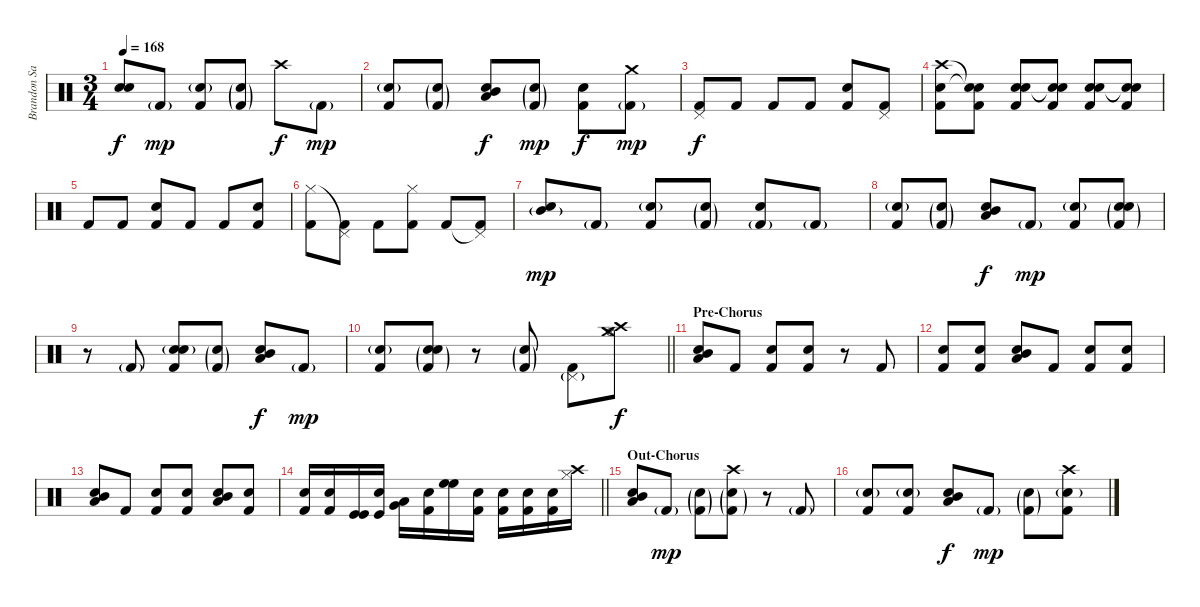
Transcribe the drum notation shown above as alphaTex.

\track ("Brandon Saller" "Brandon Sa") {instrument percussion}
\staff {score}
\articulation defaults
\ts (3 4)
\tempo 168
\clef neutral
\ks c
("Snare (hit) 2" "Electric Snare (hit)").8{dy f} "Kick (hit) 2"{g}.8{dy mp} ("Snare (hit)"{g} "Kick (hit) 2").8 ("Snare (hit)"{g} "Kick (hit) 2"{g}).8 "Crash high (hit)".8{dy f} "Kick (hit) 2"{g}.8{dy mp} |
("Snare (hit)"{g} "Kick (hit) 2").8 ("Snare (hit)"{g} "Kick (hit) 2"{g}).8 ("Snare (hit) 2" "Low Tom (hit)" "Mid Tom (hit)").8{dy f} ("Snare (hit)"{g} "Kick (hit) 2"{g}).8{dy mp} ("Electric Snare (hit)" "Kick (hit) 2").8{dy f} ("Crash medium (hit)" "Kick (hit) 2"{g}).8{dy mp} |
("Pedal Hi-Hat (hit)" "Kick (hit) 2").8{dy f} "Kick (hit) 2".8 "Kick (hit) 2".8 "Kick (hit) 2".8 ("Electric Snare (hit)" "Kick (hit) 2").8 ("Pedal Hi-Hat (hit)" "Kick (hit) 2").8 |
("Crash high (hit)" "Electric Snare (hit)" "Kick (hit) 2").8 ("Snare (hit) 2"{t} "Electric Snare (hit)"{t} "Kick (hit) 2").8 ("Snare (hit) 2" "Electric Snare (hit)" "Kick (hit) 2").8 ("Snare (hit) 2"{t} "Electric Snare (hit)"{t} "Kick (hit) 2").8 ("Snare (hit) 2" "Electric Snare (hit)" "Kick (hit) 2").8 ("Snare (hit) 2"{t} "Electric Snare (hit)"{t} "Kick (hit) 2").8 |
"Kick (hit) 2".8 "Kick (hit) 2".8 ("Snare (hit) 2" "Kick (hit) 2").8 "Kick (hit) 2".8 "Kick (hit) 2".8 ("Snare (hit) 2" "Kick (hit) 2").8 |
("Hi-Hat (closed)" "Kick (hit) 2").8 ("Pedal Hi-Hat (hit)"{t} "Kick (hit) 2").8 "Kick (hit) 2".8 ("Hi-Hat (closed)" "Kick (hit) 2").8 "Kick (hit) 2".8 ("Pedal Hi-Hat (hit)"{t} "Kick (hit) 2").8 |
("Snare (hit) 2" "Mid Tom (hit)"{g}).8{dy mp} "Kick (hit) 2"{g}.8 ("Snare (hit)"{g} "Kick (hit) 2").8 ("Snare (hit)"{g} "Kick (hit) 2"{g}).8 ("Electric Snare (hit)" "Kick (hit) 2"{g}).8 "Kick (hit) 2"{g}.8 |
("Snare (hit)"{g} "Kick (hit) 2").8 ("Snare (hit)"{g} "Kick (hit) 2"{g}).8 ("Snare (hit) 2" "Low Tom (hit)" "Mid Tom (hit)").8{dy f} "Kick (hit) 2"{g}.8{dy mp} ("Snare (hit)"{g} "Kick (hit) 2").8 ("Electric Snare (hit)" "Snare (hit)"{g} "Kick (hit) 2"{g}).8 |
r.8 "Kick (hit) 2"{g}.8 ("Electric Snare (hit)" "Snare (hit)"{g} "Kick (hit) 2").8 ("Snare (hit)"{g} "Kick (hit) 2"{g}).8 ("Snare (hit) 2" "Low Tom (hit)" "Mid Tom (hit)").8{dy f} "Kick (hit) 2"{g}.8{dy mp} |
\barLineRight lightlight
("Snare (hit)"{g} "Kick (hit) 2").8 ("Electric Snare (hit)" "Snare (hit)"{g} "Kick (hit) 2"{g}).8 r.8 ("Snare (hit)"{g} "Kick (hit) 2"{g}).8 ("Pedal Hi-Hat (hit)"{g} "Kick (hit) 2").8 ("Crash medium (hit)" "Crash high (hit)" "Hi-Hat (open)").8{dy f} |
\section ("" "Pre-Chorus")
("Snare (hit) 2" "Low Tom (hit)" "Mid Tom (hit)").8 "Kick (hit) 2".8 ("Snare (hit)" "Kick (hit) 2").8 ("Snare (hit)" "Kick (hit) 2").8 r.8 "Kick (hit) 2".8 |
("Snare (hit)" "Kick (hit) 2").8 ("Snare (hit)" "Kick (hit) 2").8 ("Snare (hit) 2" "Low Tom (hit)" "Mid Tom (hit)").8 "Kick (hit) 2".8 ("Snare (hit)" "Kick (hit) 2").8 ("Snare (hit)" "Kick (hit) 2").8 |
("Snare (hit) 2" "Low Tom (hit)" "Mid Tom (hit)").8 "Kick (hit) 2".8 ("Snare (hit)" "Kick (hit) 2").8 ("Snare (hit)" "Kick (hit) 2").8 ("Snare (hit) 2" "Low Tom (hit)" "Mid Tom (hit)").8 ("Snare (hit) 2" "Kick (hit) 2").8 |
\barLineRight lightlight
("Snare (hit) 2" "Kick (hit) 2").16 ("Snare (hit) 2" "Kick (hit) 2").16 ("Kick (hit)" "Kick (hit)").16 ("Snare (hit) 2" "Kick (hit)").16 ("Low Tom (hit)" "Very Low Tom (hit)").16 ("Snare (hit)" "Kick (hit) 2").16 ("High Floor Tom (hit)" "High Floor Tom (hit)").16 ("Snare (hit) 2" "Kick (hit) 2").16 ("Snare (hit) 2" "Kick (hit) 2").16 ("Snare (hit) 2" "Kick (hit) 2").16 ("Snare (hit) 2" "Kick (hit) 2").16 ("Hi-Hat (closed)" "Crash high (hit)").16 |
\section ("" "Out-Chorus")
("Snare (hit) 2" "Low Tom (hit)" "Mid Tom (hit)").8 "Kick (hit) 2"{g}.8{dy mp} ("Snare (hit)"{g} "Kick (hit) 2"{g}).8 ("Crash high (hit)" "Snare (hit)"{g} "Kick (hit) 2"{g}).8 r.8 "Kick (hit) 2"{g}.8 |
("Snare (hit)"{g} "Kick (hit) 2").8 ("Snare (hit)"{g} "Kick (hit) 2").8 ("Snare (hit) 2" "Low Tom (hit)" "Mid Tom (hit)").8{dy f} "Kick (hit) 2"{g}.8{dy mp} ("Snare (hit)"{g} "Kick (hit) 2"{g}).8 ("Crash high (hit)" "Snare (hit)"{g} "Kick (hit) 2").8
